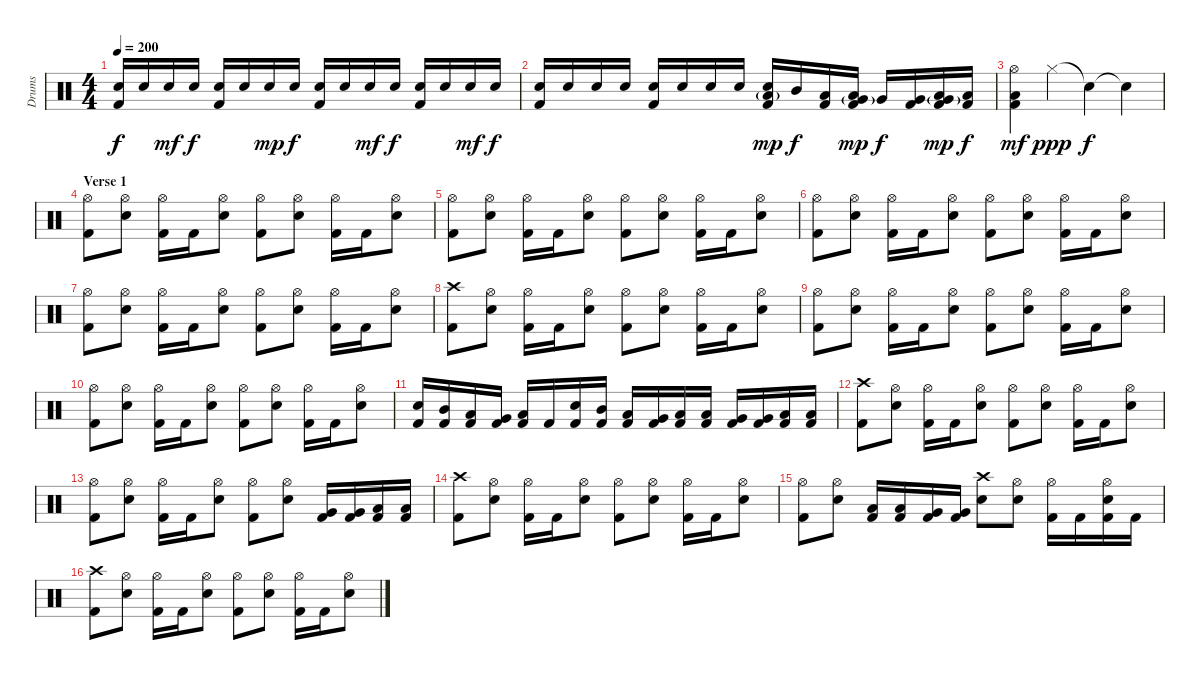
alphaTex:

\track ("Drums" "Drums") {instrument percussion}
\staff {score}
\articulation defaults
\ts (4 4)
\tempo 200
\clef neutral
\ks c
("Snare (hit) 2" "Kick (hit) 2").16{dy f} "Snare (hit) 2".16 "Snare (hit) 2".16{dy mf} "Snare (hit) 2".16{dy f} ("Snare (hit) 2" "Kick (hit) 2").16 "Snare (hit) 2".16 "Snare (hit) 2".16{dy mp} "Snare (hit) 2".16{dy f} ("Snare (hit) 2" "Kick (hit) 2").16 "Snare (hit) 2".16 "Snare (hit) 2".16{dy mf} "Snare (hit) 2".16{dy f} ("Snare (hit) 2" "Kick (hit) 2").16 "Snare (hit) 2".16 "Snare (hit) 2".16{dy mf} "Snare (hit) 2".16{dy f} |
("Snare (hit) 2" "Kick (hit) 2").16 "Snare (hit) 2".16 "Snare (hit) 2".16 "Snare (hit) 2".16 ("Snare (hit) 2" "Kick (hit) 2").16 "Snare (hit) 2".16 "Snare (hit) 2".16 "Snare (hit) 2".16 ("Low Tom (hit)"{g} "Snare (hit) 2" "Kick (hit) 2").16{dy mp} "Mid Tom (hit)".16{dy f} ("Low Tom (hit)" "Kick (hit) 2").16 ("Very Low Tom (hit)"{g} "Low Tom (hit)" "Kick (hit) 2").16{dy mp} "Very Low Tom (hit)".16{dy f} ("Very Low Tom (hit)" "Kick (hit) 2").16 ("Very Low Tom (hit)"{g} "Low Floor Tom (hit)" "Kick (hit) 2").16{dy mp} ("Low Floor Tom (hit)" "Kick (hit) 2").16{dy f} |
("Hi-Hat (open)" "Low Floor Tom (hit)" "Kick (hit) 2").4{dy mf} "Hi-Hat (closed)".4{dy ppp} "Snare (hit)"{t}.4{dy f} "Snare (hit)"{t}.4 |
\section ("" "Verse 1")
("Hi-Hat (open)" "Kick (hit) 2").8 ("Hi-Hat (open)" "Snare (hit) 2").8 ("Hi-Hat (open)" "Kick (hit) 2").16 "Kick (hit) 2".16 ("Hi-Hat (open)" "Snare (hit) 2").8 ("Hi-Hat (open)" "Kick (hit) 2").8 ("Hi-Hat (open)" "Snare (hit) 2").8 ("Hi-Hat (open)" "Kick (hit) 2").16 "Kick (hit) 2".16 ("Hi-Hat (open)" "Snare (hit) 2").8 |
("Hi-Hat (open)" "Kick (hit) 2").8 ("Hi-Hat (open)" "Snare (hit) 2").8 ("Hi-Hat (open)" "Kick (hit) 2").16 "Kick (hit) 2".16 ("Hi-Hat (open)" "Snare (hit) 2").8 ("Hi-Hat (open)" "Kick (hit) 2").8 ("Hi-Hat (open)" "Snare (hit) 2").8 ("Hi-Hat (open)" "Kick (hit) 2").16 "Kick (hit) 2".16 ("Hi-Hat (open)" "Snare (hit) 2").8 |
("Hi-Hat (open)" "Kick (hit) 2").8 ("Hi-Hat (open)" "Snare (hit) 2").8 ("Hi-Hat (open)" "Kick (hit) 2").16 "Kick (hit) 2".16 ("Hi-Hat (open)" "Snare (hit) 2").8 ("Hi-Hat (open)" "Kick (hit) 2").8 ("Hi-Hat (open)" "Snare (hit) 2").8 ("Hi-Hat (open)" "Kick (hit) 2").16 "Kick (hit) 2".16 ("Hi-Hat (open)" "Snare (hit) 2").8 |
("Hi-Hat (open)" "Kick (hit) 2").8 ("Hi-Hat (open)" "Snare (hit) 2").8 ("Hi-Hat (open)" "Kick (hit) 2").16 "Kick (hit) 2".16 ("Hi-Hat (open)" "Snare (hit) 2").8 ("Hi-Hat (open)" "Kick (hit) 2").8 ("Hi-Hat (open)" "Snare (hit) 2").8 ("Hi-Hat (open)" "Kick (hit) 2").16 "Kick (hit) 2".16 ("Hi-Hat (open)" "Snare (hit) 2").8 |
("Crash high (hit)" "Kick (hit) 2").8 ("Hi-Hat (open)" "Snare (hit) 2").8 ("Hi-Hat (open)" "Kick (hit) 2").16 "Kick (hit) 2".16 ("Hi-Hat (open)" "Snare (hit) 2").8 ("Hi-Hat (open)" "Kick (hit) 2").8 ("Hi-Hat (open)" "Snare (hit) 2").8 ("Hi-Hat (open)" "Kick (hit) 2").16 "Kick (hit) 2".16 ("Hi-Hat (open)" "Snare (hit) 2").8 |
("Hi-Hat (open)" "Kick (hit) 2").8 ("Hi-Hat (open)" "Snare (hit) 2").8 ("Hi-Hat (open)" "Kick (hit) 2").16 "Kick (hit) 2".16 ("Hi-Hat (open)" "Snare (hit) 2").8 ("Hi-Hat (open)" "Kick (hit) 2").8 ("Hi-Hat (open)" "Snare (hit) 2").8 ("Hi-Hat (open)" "Kick (hit) 2").16 "Kick (hit) 2".16 ("Hi-Hat (open)" "Snare (hit) 2").8 |
("Hi-Hat (open)" "Kick (hit) 2").8 ("Hi-Hat (open)" "Snare (hit) 2").8 ("Hi-Hat (open)" "Kick (hit) 2").16 "Kick (hit) 2".16 ("Hi-Hat (open)" "Snare (hit) 2").8 ("Hi-Hat (open)" "Kick (hit) 2").8 ("Hi-Hat (open)" "Snare (hit) 2").8 ("Hi-Hat (open)" "Kick (hit) 2").16 "Kick (hit) 2".16 ("Hi-Hat (open)" "Snare (hit) 2").8 |
("Snare (hit) 2" "Kick (hit) 2").16 ("Mid Tom (hit)" "Kick (hit) 2").16 ("Low Tom (hit)" "Kick (hit) 2").16 ("Very Low Tom (hit)" "Kick (hit) 2").16 ("Low Floor Tom (hit)" "Kick (hit) 2").16 "Kick (hit) 2".16 ("Snare (hit) 2" "Kick (hit) 2").16 ("Mid Tom (hit)" "Kick (hit) 2").16 ("Low Tom (hit)" "Kick (hit) 2").16 ("Very Low Tom (hit)" "Kick (hit) 2").16 ("Low Tom (hit)" "Kick (hit) 2").16 ("Low Tom (hit)" "Kick (hit) 2").16 ("Very Low Tom (hit)" "Kick (hit) 2").16 ("Very Low Tom (hit)" "Kick (hit) 2").16 ("Low Floor Tom (hit)" "Kick (hit) 2").16 ("Low Floor Tom (hit)" "Kick (hit) 2").16 |
("Crash high (hit)" "Kick (hit) 2").8 ("Hi-Hat (open)" "Snare (hit) 2").8 ("Hi-Hat (open)" "Kick (hit) 2").16 "Kick (hit) 2".16 ("Hi-Hat (open)" "Snare (hit) 2").8 ("Hi-Hat (open)" "Kick (hit) 2").8 ("Hi-Hat (open)" "Snare (hit) 2").8 ("Hi-Hat (open)" "Kick (hit) 2").16 "Kick (hit) 2".16 ("Hi-Hat (open)" "Snare (hit) 2").8 |
("Hi-Hat (open)" "Kick (hit) 2").8 ("Hi-Hat (open)" "Snare (hit) 2").8 ("Hi-Hat (open)" "Kick (hit) 2").16 "Kick (hit) 2".16 ("Hi-Hat (open)" "Snare (hit) 2").8 ("Hi-Hat (open)" "Kick (hit) 2").8 ("Hi-Hat (open)" "Snare (hit) 2").8 ("Very Low Tom (hit)" "Kick (hit) 2").16 ("Very Low Tom (hit)" "Kick (hit) 2").16 ("Low Floor Tom (hit)" "Kick (hit) 2").16 ("Low Floor Tom (hit)" "Kick (hit) 2").16 |
("Crash high (hit)" "Kick (hit) 2").8 ("Hi-Hat (open)" "Snare (hit) 2").8 ("Hi-Hat (open)" "Kick (hit) 2").16 "Kick (hit) 2".16 ("Hi-Hat (open)" "Snare (hit) 2").8 ("Hi-Hat (open)" "Kick (hit) 2").8 ("Hi-Hat (open)" "Snare (hit) 2").8 ("Hi-Hat (open)" "Kick (hit) 2").16 "Kick (hit) 2".16 ("Hi-Hat (open)" "Snare (hit) 2").8 |
("Hi-Hat (open)" "Kick (hit) 2").8 ("Hi-Hat (open)" "Snare (hit) 2").8 ("Low Tom (hit)" "Kick (hit) 2").16 ("Low Tom (hit)" "Kick (hit) 2").16 ("Very Low Tom (hit)" "Kick (hit) 2").16 ("Very Low Tom (hit)" "Kick (hit) 2").16 ("Crash high (hit)" "Snare (hit) 2").8 ("Hi-Hat (open)" "Snare (hit) 2").8 ("Hi-Hat (open)" "Kick (hit) 2").16 "Kick (hit) 2".16 ("Hi-Hat (open)" "Snare (hit) 2" "Kick (hit) 2").16 "Kick (hit) 2".16 |
("Crash high (hit)" "Kick (hit) 2").8 ("Hi-Hat (open)" "Snare (hit) 2").8 ("Hi-Hat (open)" "Kick (hit) 2").16 "Kick (hit) 2".16 ("Hi-Hat (open)" "Snare (hit) 2").8 ("Hi-Hat (open)" "Kick (hit) 2").8 ("Hi-Hat (open)" "Snare (hit) 2").8 ("Hi-Hat (open)" "Kick (hit) 2").16 "Kick (hit) 2".16 ("Hi-Hat (open)" "Snare (hit) 2").8
